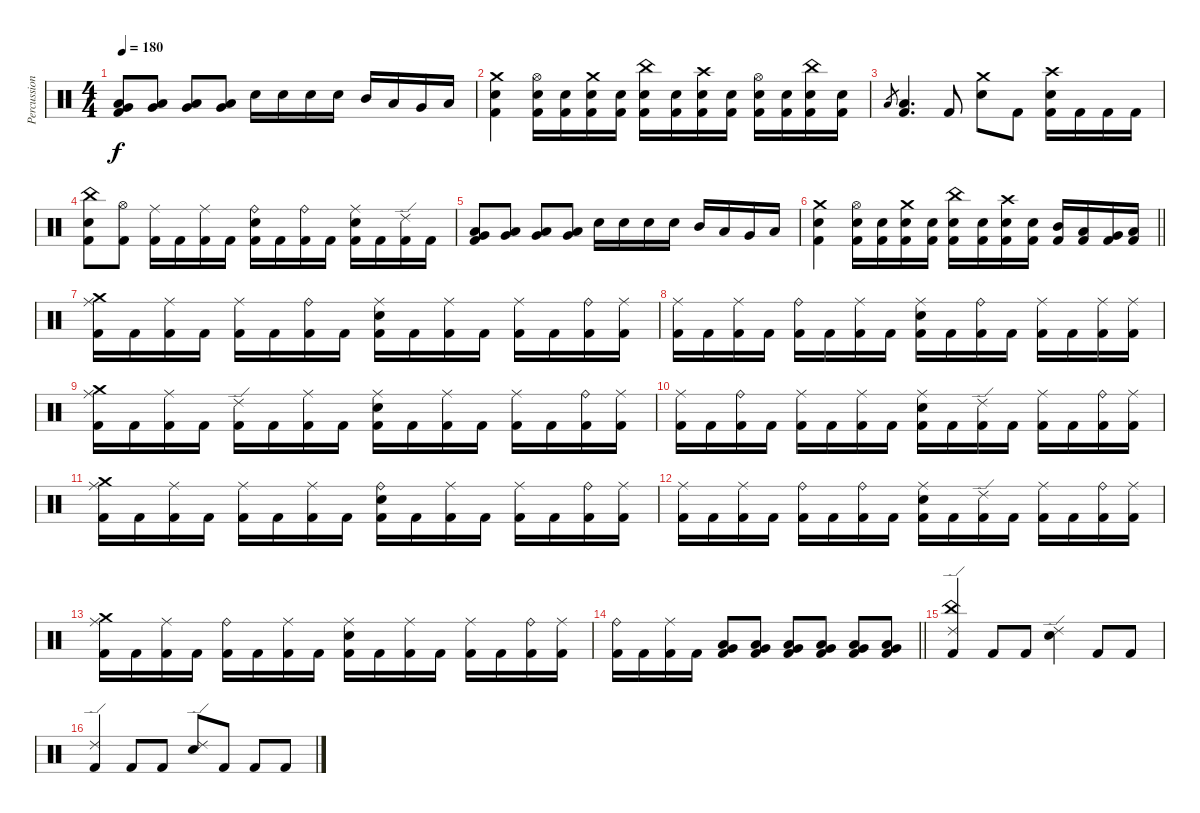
\track ("Percussions" "Percussion") {instrument percussion}
\staff {score}
\articulation defaults
\ts (4 4)
\tempo 180
\clef neutral
\ks c
("Low Tom (hit)" "Very Low Tom (hit)" "Kick (hit) 2").8{dy f} ("Low Tom (hit)" "Very Low Tom (hit)").8 ("Low Tom (hit)" "Very Low Tom (hit)").8 ("Low Tom (hit)" "Very Low Tom (hit)").8 "Electric Snare (hit)".16 "Electric Snare (hit)".16 "Electric Snare (hit)".16 "Electric Snare (hit)".16 "Mid Tom (hit)".16 "Low Tom (hit)".16 "Very Low Tom (hit)".16 "Low Floor Tom (hit)".16 |
("Crash medium (hit)" "Electric Snare (hit)" "Kick (hit) 2").4 ("Hi-Hat (open)" "Electric Snare (hit)" "Kick (hit) 2").16 ("Electric Snare (hit)" "Kick (hit) 2").16 ("Crash medium (hit)" "Electric Snare (hit)" "Kick (hit) 2").16 ("Electric Snare (hit)" "Kick (hit) 2").16 ("China (hit)" "Electric Snare (hit)" "Kick (hit) 2").16 ("Electric Snare (hit)" "Kick (hit) 2").16 ("Crash high (hit)" "Electric Snare (hit)" "Kick (hit) 2").16 ("Electric Snare (hit)" "Kick (hit) 2").16 ("Hi-Hat (open)" "Electric Snare (hit)" "Kick (hit) 2").16 ("Electric Snare (hit)" "Kick (hit) 2").16 ("China (hit)" "Electric Snare (hit)" "Kick (hit) 2").16 ("Electric Snare (hit)" "Kick (hit) 2").16 |
"Low Tom (hit)".8{gr} ("Low Tom (hit)" "Kick (hit) 2").4{d} "Kick (hit) 2".8 ("Crash medium (hit)" "Electric Snare (hit)").8 "Kick (hit) 2".8 ("Crash high (hit)" "Electric Snare (hit)" "Kick (hit) 2").16 "Kick (hit) 2".16 "Kick (hit) 2".16 "Kick (hit) 2".16 |
("China (hit)" "Electric Snare (hit)" "Kick (hit) 2").8 ("Hi-Hat (open)" "Kick (hit) 2").8 ("Ride (middle)" "Kick (hit) 2").16 "Kick (hit) 2".16 ("Ride (middle)" "Kick (hit) 2").16 "Kick (hit) 2".16 ("Ride (bell)" "Electric Snare (hit)" "Kick (hit) 2").16 "Kick (hit) 2".16 ("Ride (bell)" "Kick (hit) 2").16 "Kick (hit) 2".16 ("Ride (middle)" "Electric Snare (hit)" "Kick (hit) 2").16 "Kick (hit) 2".16 ("Ride (edge) 2" "Kick (hit) 2").16 "Kick (hit) 2".16 |
("Low Tom (hit)" "Very Low Tom (hit)" "Kick (hit) 2").8 ("Low Tom (hit)" "Very Low Tom (hit)").8 ("Low Tom (hit)" "Very Low Tom (hit)").8 ("Low Tom (hit)" "Very Low Tom (hit)").8 "Electric Snare (hit)".16 "Electric Snare (hit)".16 "Electric Snare (hit)".16 "Electric Snare (hit)".16 "Mid Tom (hit)".16 "Low Tom (hit)".16 "Very Low Tom (hit)".16 "Low Floor Tom (hit)".16 |
\barLineRight lightlight
("Crash medium (hit)" "Electric Snare (hit)" "Kick (hit) 2").4 ("Hi-Hat (open)" "Electric Snare (hit)" "Kick (hit) 2").16 ("Electric Snare (hit)" "Kick (hit) 2").16 ("Crash medium (hit)" "Electric Snare (hit)" "Kick (hit) 2").16 ("Electric Snare (hit)" "Kick (hit) 2").16 ("China (hit)" "Electric Snare (hit)" "Kick (hit) 2").16 ("Electric Snare (hit)" "Kick (hit) 2").16 ("Crash high (hit)" "Electric Snare (hit)" "Kick (hit) 2").16 ("Electric Snare (hit)" "Kick (hit) 2").16 ("Mid Tom (hit)" "Kick (hit) 2").16 ("Low Tom (hit)" "Kick (hit) 2").16 ("Very Low Tom (hit)" "Kick (hit) 2").16 ("Low Floor Tom (hit)" "Kick (hit) 2").16 |
("Ride (middle)" "Crash medium (hit)" "Kick (hit) 2").16 "Kick (hit) 2".16 ("Ride (middle)" "Kick (hit) 2").16 "Kick (hit) 2".16 ("Ride (middle)" "Kick (hit) 2").16 "Kick (hit) 2".16 ("Ride (bell)" "Kick (hit) 2").16 "Kick (hit) 2".16 ("Ride (middle)" "Electric Snare (hit)" "Kick (hit) 2").16 "Kick (hit) 2".16 ("Ride (middle)" "Kick (hit) 2").16 "Kick (hit) 2".16 ("Ride (middle)" "Kick (hit) 2").16 "Kick (hit) 2".16 ("Ride (bell)" "Kick (hit) 2").16 ("Ride (middle)" "Kick (hit) 2").16 |
("Ride (middle)" "Kick (hit) 2").16 "Kick (hit) 2".16 ("Ride (middle)" "Kick (hit) 2").16 "Kick (hit) 2".16 ("Ride (bell)" "Kick (hit) 2").16 "Kick (hit) 2".16 ("Ride (middle)" "Kick (hit) 2").16 "Kick (hit) 2".16 ("Ride (middle)" "Electric Snare (hit)" "Kick (hit) 2").16 "Kick (hit) 2".16 ("Ride (bell)" "Kick (hit) 2").16 "Kick (hit) 2".16 ("Ride (middle)" "Kick (hit) 2").16 "Kick (hit) 2".16 ("Ride (middle)" "Kick (hit) 2").16 ("Ride (middle)" "Kick (hit) 2").16 |
("Ride (middle)" "Crash medium (hit)" "Kick (hit) 2").16 "Kick (hit) 2".16 ("Ride (middle)" "Kick (hit) 2").16 "Kick (hit) 2".16 ("Ride (edge) 2" "Kick (hit) 2").16 "Kick (hit) 2".16 ("Ride (middle)" "Kick (hit) 2").16 "Kick (hit) 2".16 ("Ride (middle)" "Electric Snare (hit)" "Kick (hit) 2").16 "Kick (hit) 2".16 ("Ride (middle)" "Kick (hit) 2").16 "Kick (hit) 2".16 ("Ride (middle)" "Kick (hit) 2").16 "Kick (hit) 2".16 ("Ride (bell)" "Kick (hit) 2").16 ("Ride (middle)" "Kick (hit) 2").16 |
("Ride (middle)" "Kick (hit) 2").16 "Kick (hit) 2".16 ("Ride (bell)" "Kick (hit) 2").16 "Kick (hit) 2".16 ("Ride (middle)" "Kick (hit) 2").16 "Kick (hit) 2".16 ("Ride (middle)" "Kick (hit) 2").16 "Kick (hit) 2".16 ("Ride (middle)" "Electric Snare (hit)" "Kick (hit) 2").16 "Kick (hit) 2".16 ("Ride (edge) 2" "Kick (hit) 2").16 "Kick (hit) 2".16 ("Ride (middle)" "Kick (hit) 2").16 "Kick (hit) 2".16 ("Ride (bell)" "Kick (hit) 2").16 ("Ride (middle)" "Kick (hit) 2").16 |
("Ride (middle)" "Crash medium (hit)" "Kick (hit) 2").16 "Kick (hit) 2".16 ("Ride (middle)" "Kick (hit) 2").16 "Kick (hit) 2".16 ("Ride (middle)" "Kick (hit) 2").16 "Kick (hit) 2".16 ("Ride (middle)" "Kick (hit) 2").16 "Kick (hit) 2".16 ("Ride (bell)" "Electric Snare (hit)" "Kick (hit) 2").16 "Kick (hit) 2".16 ("Ride (middle)" "Kick (hit) 2").16 "Kick (hit) 2".16 ("Ride (middle)" "Kick (hit) 2").16 "Kick (hit) 2".16 ("Ride (bell)" "Kick (hit) 2").16 ("Ride (middle)" "Kick (hit) 2").16 |
("Ride (middle)" "Kick (hit) 2").16 "Kick (hit) 2".16 ("Ride (middle)" "Kick (hit) 2").16 "Kick (hit) 2".16 ("Ride (bell)" "Kick (hit) 2").16 "Kick (hit) 2".16 ("Ride (bell)" "Kick (hit) 2").16 "Kick (hit) 2".16 ("Ride (middle)" "Electric Snare (hit)" "Kick (hit) 2").16 "Kick (hit) 2".16 ("Ride (edge) 2" "Kick (hit) 2").16 "Kick (hit) 2".16 ("Ride (middle)" "Kick (hit) 2").16 "Kick (hit) 2".16 ("Ride (bell)" "Kick (hit) 2").16 ("Ride (middle)" "Kick (hit) 2").16 |
("Ride (middle)" "Crash medium (hit)" "Kick (hit) 2").16 "Kick (hit) 2".16 ("Ride (middle)" "Kick (hit) 2").16 "Kick (hit) 2".16 ("Ride (bell)" "Kick (hit) 2").16 "Kick (hit) 2".16 ("Ride (middle)" "Kick (hit) 2").16 "Kick (hit) 2".16 ("Ride (middle)" "Electric Snare (hit)" "Kick (hit) 2").16 "Kick (hit) 2".16 ("Ride (middle)" "Kick (hit) 2").16 "Kick (hit) 2".16 ("Ride (middle)" "Kick (hit) 2").16 "Kick (hit) 2".16 ("Ride (bell)" "Kick (hit) 2").16 ("Ride (middle)" "Kick (hit) 2").16 |
\barLineRight lightlight
("Ride (bell)" "Kick (hit) 2").16 "Kick (hit) 2".16 ("Ride (middle)" "Kick (hit) 2").16 "Kick (hit) 2".16 ("Low Tom (hit)" "Very Low Tom (hit)" "Kick (hit) 2").8 ("Low Tom (hit)" "Very Low Tom (hit)" "Kick (hit) 2").8 ("Low Tom (hit)" "Very Low Tom (hit)" "Kick (hit) 2").8 ("Low Tom (hit)" "Very Low Tom (hit)" "Kick (hit) 2").8 ("Low Tom (hit)" "Very Low Tom (hit)" "Kick (hit) 2").8 ("Low Tom (hit)" "Very Low Tom (hit)" "Kick (hit) 2").8 |
("Ride (edge) 2" "China (hit)" "Kick (hit) 2").4 "Kick (hit) 2".8 "Kick (hit) 2".8 ("Ride (edge) 2" "Electric Snare (hit)").4 "Kick (hit) 2".8 "Kick (hit) 2".8 |
("Ride (edge) 2" "Kick (hit) 2").4 "Kick (hit) 2".8 "Kick (hit) 2".8 ("Ride (edge) 2" "Electric Snare (hit)").8 "Kick (hit) 2".8 "Kick (hit) 2".8 "Kick (hit) 2".8
